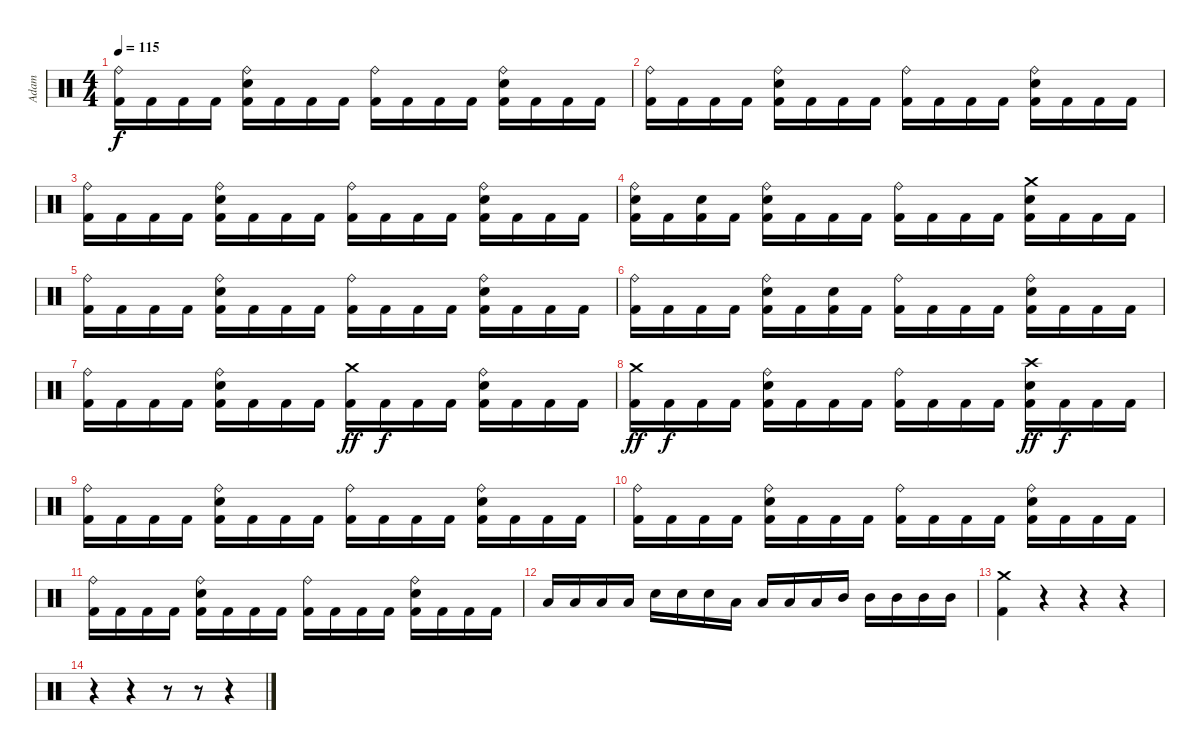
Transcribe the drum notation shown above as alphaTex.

\track ("Adam" "Adam") {instrument percussion}
\staff {score}
\articulation defaults
\ts (4 4)
\tempo 115
\clef neutral
\ks c
("Ride (bell)" "Kick (hit) 2").16{dy f} "Kick (hit) 2".16 "Kick (hit) 2".16 "Kick (hit) 2".16 ("Ride (bell)" "Electric Snare (hit)" "Kick (hit) 2").16 "Kick (hit) 2".16 "Kick (hit) 2".16 "Kick (hit) 2".16 ("Ride (bell)" "Kick (hit) 2").16 "Kick (hit) 2".16 "Kick (hit) 2".16 "Kick (hit) 2".16 ("Ride (bell)" "Electric Snare (hit)" "Kick (hit) 2").16 "Kick (hit) 2".16 "Kick (hit) 2".16 "Kick (hit) 2".16 |
("Ride (bell)" "Kick (hit) 2").16 "Kick (hit) 2".16 "Kick (hit) 2".16 "Kick (hit) 2".16 ("Ride (bell)" "Electric Snare (hit)" "Kick (hit) 2").16 "Kick (hit) 2".16 "Kick (hit) 2".16 "Kick (hit) 2".16 ("Ride (bell)" "Kick (hit) 2").16 "Kick (hit) 2".16 "Kick (hit) 2".16 "Kick (hit) 2".16 ("Ride (bell)" "Electric Snare (hit)" "Kick (hit) 2").16 "Kick (hit) 2".16 "Kick (hit) 2".16 "Kick (hit) 2".16 |
("Ride (bell)" "Kick (hit) 2").16 "Kick (hit) 2".16 "Kick (hit) 2".16 "Kick (hit) 2".16 ("Ride (bell)" "Electric Snare (hit)" "Kick (hit) 2").16 "Kick (hit) 2".16 "Kick (hit) 2".16 "Kick (hit) 2".16 ("Ride (bell)" "Kick (hit) 2").16 "Kick (hit) 2".16 "Kick (hit) 2".16 "Kick (hit) 2".16 ("Ride (bell)" "Electric Snare (hit)" "Kick (hit) 2").16 "Kick (hit) 2".16 "Kick (hit) 2".16 "Kick (hit) 2".16 |
("Ride (bell)" "Snare (hit) 2" "Kick (hit) 2").16 "Kick (hit) 2".16 ("Snare (hit) 2" "Kick (hit) 2").16 "Kick (hit) 2".16 ("Ride (bell)" "Electric Snare (hit)" "Kick (hit) 2").16 "Kick (hit) 2".16 "Kick (hit) 2".16 "Kick (hit) 2".16 ("Ride (bell)" "Kick (hit) 2").16 "Kick (hit) 2".16 "Kick (hit) 2".16 "Kick (hit) 2".16 ("Crash medium (hit)" "Snare (hit) 2" "Kick (hit) 2").16 "Kick (hit) 2".16 "Kick (hit) 2".16 "Kick (hit) 2".16 |
("Ride (bell)" "Kick (hit) 2").16 "Kick (hit) 2".16 "Kick (hit) 2".16 "Kick (hit) 2".16 ("Ride (bell)" "Electric Snare (hit)" "Kick (hit) 2").16 "Kick (hit) 2".16 "Kick (hit) 2".16 "Kick (hit) 2".16 ("Ride (bell)" "Kick (hit) 2").16 "Kick (hit) 2".16 "Kick (hit) 2".16 "Kick (hit) 2".16 ("Ride (bell)" "Electric Snare (hit)" "Kick (hit) 2").16 "Kick (hit) 2".16 "Kick (hit) 2".16 "Kick (hit) 2".16 |
("Ride (bell)" "Kick (hit) 2").16 "Kick (hit) 2".16 "Kick (hit) 2".16 "Kick (hit) 2".16 ("Ride (bell)" "Snare (hit) 2" "Kick (hit) 2").16 "Kick (hit) 2".16 ("Snare (hit) 2" "Kick (hit) 2").16 "Kick (hit) 2".16 ("Ride (bell)" "Kick (hit) 2").16 "Kick (hit) 2".16 "Kick (hit) 2".16 "Kick (hit) 2".16 ("Ride (bell)" "Electric Snare (hit)" "Kick (hit) 2").16 "Kick (hit) 2".16 "Kick (hit) 2".16 "Kick (hit) 2".16 |
("Ride (bell)" "Kick (hit) 2").16 "Kick (hit) 2".16 "Kick (hit) 2".16 "Kick (hit) 2".16 ("Ride (bell)" "Electric Snare (hit)" "Kick (hit) 2").16 "Kick (hit) 2".16 "Kick (hit) 2".16 "Kick (hit) 2".16 ("Crash medium (hit)" "Kick (hit) 2").16{dy ff} "Kick (hit) 2".16{dy f} "Kick (hit) 2".16 "Kick (hit) 2".16 ("Ride (bell)" "Electric Snare (hit)" "Kick (hit) 2").16 "Kick (hit) 2".16 "Kick (hit) 2".16 "Kick (hit) 2".16 |
("Crash medium (hit)" "Kick (hit) 2").16{dy ff} "Kick (hit) 2".16{dy f} "Kick (hit) 2".16 "Kick (hit) 2".16 ("Ride (bell)" "Electric Snare (hit)" "Kick (hit) 2").16 "Kick (hit) 2".16 "Kick (hit) 2".16 "Kick (hit) 2".16 ("Ride (bell)" "Kick (hit) 2").16 "Kick (hit) 2".16 "Kick (hit) 2".16 "Kick (hit) 2".16 ("Crash high (hit)" "Snare (hit) 2" "Kick (hit) 2").16{dy ff} "Kick (hit) 2".16{dy f} "Kick (hit) 2".16 "Kick (hit) 2".16 |
("Ride (bell)" "Kick (hit) 2").16 "Kick (hit) 2".16 "Kick (hit) 2".16 "Kick (hit) 2".16 ("Ride (bell)" "Electric Snare (hit)" "Kick (hit) 2").16 "Kick (hit) 2".16 "Kick (hit) 2".16 "Kick (hit) 2".16 ("Ride (bell)" "Kick (hit) 2").16 "Kick (hit) 2".16 "Kick (hit) 2".16 "Kick (hit) 2".16 ("Ride (bell)" "Electric Snare (hit)" "Kick (hit) 2").16 "Kick (hit) 2".16 "Kick (hit) 2".16 "Kick (hit) 2".16 |
("Ride (bell)" "Kick (hit) 2").16 "Kick (hit) 2".16 "Kick (hit) 2".16 "Kick (hit) 2".16 ("Ride (bell)" "Electric Snare (hit)" "Kick (hit) 2").16 "Kick (hit) 2".16 "Kick (hit) 2".16 "Kick (hit) 2".16 ("Ride (bell)" "Kick (hit) 2").16 "Kick (hit) 2".16 "Kick (hit) 2".16 "Kick (hit) 2".16 ("Ride (bell)" "Electric Snare (hit)" "Kick (hit) 2").16 "Kick (hit) 2".16 "Kick (hit) 2".16 "Kick (hit) 2".16 |
("Ride (bell)" "Kick (hit) 2").16 "Kick (hit) 2".16 "Kick (hit) 2".16 "Kick (hit) 2".16 ("Ride (bell)" "Electric Snare (hit)" "Kick (hit) 2").16 "Kick (hit) 2".16 "Kick (hit) 2".16 "Kick (hit) 2".16 ("Ride (bell)" "Kick (hit) 2").16 "Kick (hit) 2".16 "Kick (hit) 2".16 "Kick (hit) 2".16 ("Ride (bell)" "Electric Snare (hit)" "Kick (hit) 2").16 "Kick (hit) 2".16 "Kick (hit) 2".16 "Kick (hit) 2".16 |
"Low Floor Tom (hit)".16 "Low Floor Tom (hit)".16 "Low Floor Tom (hit)".16 "Low Floor Tom (hit)".16 "Electric Snare (hit)".16 "Electric Snare (hit)".16 "Electric Snare (hit)".16 "Low Tom (hit)".16 "Low Tom (hit)".16 "Low Tom (hit)".16 "Low Tom (hit)".16 "Mid Tom (hit)".16 "Mid Tom (hit)".16 "Mid Tom (hit)".16 "Mid Tom (hit)".16 "Mid Tom (hit)".16 |
("Crash medium (hit)" "Kick (hit) 2").4 r.4 r.4 r.4 |
r.4 r.4 r.8 r.8 r.4
